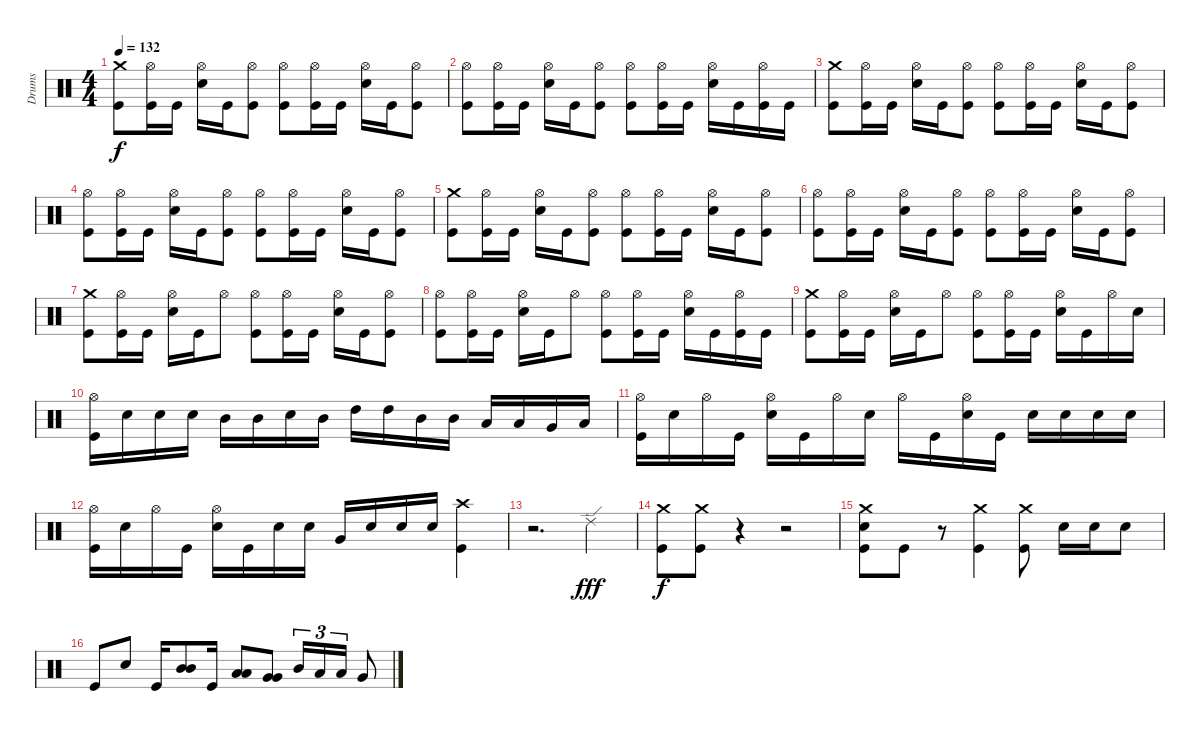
\track ("Drums" "Drums") {instrument percussion}
\staff {score}
\articulation defaults
\ts (4 4)
\tempo 132
\clef neutral
\ks c
("Crash medium (hit)" "Kick (hit)").8{dy f} ("Hi-Hat (open)" "Kick (hit)").16 "Kick (hit)".16 ("Hi-Hat (open)" "Snare (hit) 2").16 "Kick (hit)".16 ("Hi-Hat (open)" "Kick (hit)").8 ("Hi-Hat (open)" "Kick (hit)").8 ("Hi-Hat (open)" "Kick (hit)").16 "Kick (hit)".16 ("Hi-Hat (open)" "Snare (hit) 2").16 "Kick (hit)".16 ("Hi-Hat (open)" "Kick (hit)").8 |
("Hi-Hat (open)" "Kick (hit)").8 ("Hi-Hat (open)" "Kick (hit)").16 "Kick (hit)".16 ("Hi-Hat (open)" "Snare (hit) 2").16 "Kick (hit)".16 ("Hi-Hat (open)" "Kick (hit)").8 ("Hi-Hat (open)" "Kick (hit)").8 ("Hi-Hat (open)" "Kick (hit)").16 "Kick (hit)".16 ("Hi-Hat (open)" "Snare (hit) 2").16 "Kick (hit)".16 ("Hi-Hat (open)" "Kick (hit)").16 "Kick (hit)".16 |
("Crash medium (hit)" "Kick (hit)").8 ("Hi-Hat (open)" "Kick (hit)").16 "Kick (hit)".16 ("Hi-Hat (open)" "Snare (hit) 2").16 "Kick (hit)".16 ("Hi-Hat (open)" "Kick (hit)").8 ("Hi-Hat (open)" "Kick (hit)").8 ("Hi-Hat (open)" "Kick (hit)").16 "Kick (hit)".16 ("Hi-Hat (open)" "Snare (hit) 2").16 "Kick (hit)".16 ("Hi-Hat (open)" "Kick (hit)").8 |
("Hi-Hat (open)" "Kick (hit)").8 ("Hi-Hat (open)" "Kick (hit)").16 "Kick (hit)".16 ("Hi-Hat (open)" "Snare (hit) 2").16 "Kick (hit)".16 ("Hi-Hat (open)" "Kick (hit)").8 ("Hi-Hat (open)" "Kick (hit)").8 ("Hi-Hat (open)" "Kick (hit)").16 "Kick (hit)".16 ("Hi-Hat (open)" "Snare (hit) 2").16 "Kick (hit)".16 ("Hi-Hat (open)" "Kick (hit)").8 |
("Crash medium (hit)" "Kick (hit)").8 ("Hi-Hat (open)" "Kick (hit)").16 "Kick (hit)".16 ("Hi-Hat (open)" "Snare (hit) 2").16 "Kick (hit)".16 ("Hi-Hat (open)" "Kick (hit)").8 ("Hi-Hat (open)" "Kick (hit)").8 ("Hi-Hat (open)" "Kick (hit)").16 "Kick (hit)".16 ("Hi-Hat (open)" "Snare (hit) 2").16 "Kick (hit)".16 ("Hi-Hat (open)" "Kick (hit)").8 |
("Hi-Hat (open)" "Kick (hit)").8 ("Hi-Hat (open)" "Kick (hit)").16 "Kick (hit)".16 ("Hi-Hat (open)" "Snare (hit) 2").16 "Kick (hit)".16 ("Hi-Hat (open)" "Kick (hit)").8 ("Hi-Hat (open)" "Kick (hit)").8 ("Hi-Hat (open)" "Kick (hit)").16 "Kick (hit)".16 ("Hi-Hat (open)" "Snare (hit) 2").16 "Kick (hit)".16 ("Hi-Hat (open)" "Kick (hit)").8 |
("Crash medium (hit)" "Kick (hit)").8 ("Hi-Hat (open)" "Kick (hit)").16 "Kick (hit)".16 ("Hi-Hat (open)" "Snare (hit) 2").16 "Kick (hit)".16 "Hi-Hat (open)".8 ("Hi-Hat (open)" "Kick (hit)").8 ("Hi-Hat (open)" "Kick (hit)").16 "Kick (hit)".16 ("Hi-Hat (open)" "Snare (hit) 2").16 "Kick (hit)".16 ("Hi-Hat (open)" "Kick (hit)").8 |
("Hi-Hat (open)" "Kick (hit)").8 ("Hi-Hat (open)" "Kick (hit)").16 "Kick (hit)".16 ("Hi-Hat (open)" "Snare (hit) 2").16 "Kick (hit)".16 "Hi-Hat (open)".8 ("Hi-Hat (open)" "Kick (hit)").8 ("Hi-Hat (open)" "Kick (hit)").16 "Kick (hit)".16 ("Hi-Hat (open)" "Snare (hit) 2").16 "Kick (hit)".16 ("Hi-Hat (open)" "Kick (hit)").16 "Kick (hit)".16 |
("Crash medium (hit)" "Kick (hit)").8 ("Hi-Hat (open)" "Kick (hit)").16 "Kick (hit)".16 ("Hi-Hat (open)" "Snare (hit) 2").16 "Kick (hit)".16 "Hi-Hat (open)".8 ("Hi-Hat (open)" "Kick (hit)").8 ("Hi-Hat (open)" "Kick (hit)").16 "Kick (hit)".16 ("Hi-Hat (open)" "Snare (hit) 2").16 "Kick (hit)".16 "Hi-Hat (open)".16 "Snare (hit) 2".16 |
("Hi-Hat (open)" "Kick (hit)").16 "Snare (hit) 2".16 "Snare (hit) 2".16 "Snare (hit) 2".16 "Mid Tom (hit)".16 "Mid Tom (hit)".16 "Snare (hit) 2".16 "Mid Tom (hit)".16 "High Tom (hit)".16 "High Tom (hit)".16 "Mid Tom (hit)".16 "Mid Tom (hit)".16 "Low Tom (hit)".16 "Low Tom (hit)".16 "Very Low Tom (hit)".16 "Low Floor Tom (hit)".16 |
("Hi-Hat (open)" "Kick (hit)").16 "Snare (hit) 2".16 "Hi-Hat (open)".16 "Kick (hit)".16 ("Hi-Hat (open)" "Snare (hit) 2").16 "Kick (hit)".16 "Hi-Hat (open)".16 "Snare (hit) 2".16 "Hi-Hat (open)".16 "Kick (hit)".16 ("Hi-Hat (open)" "Snare (hit) 2").16 "Kick (hit)".16 "Snare (hit) 2".16 "Snare (hit) 2".16 "Snare (hit) 2".16 "Snare (hit) 2".16 |
("Hi-Hat (open)" "Kick (hit)").16 "Snare (hit) 2".16 "Hi-Hat (open)".16 "Kick (hit)".16 ("Hi-Hat (open)" "Snare (hit) 2").16 "Kick (hit)".16 "Snare (hit) 2".16 "Snare (hit) 2".16 "Very Low Tom (hit)".16 "Snare (hit) 2".16 "Snare (hit) 2".16 "Snare (hit) 2".16 ("Crash high (hit)" "Kick (hit)").4 |
r.2{d} "Ride (edge) 2".4{dy fff} |
("Crash medium (hit)" "Kick (hit)").8{dy f} ("Crash medium (hit)" "Kick (hit)").8 r.4 r.2 |
("Crash medium (hit)" "Snare (hit) 2" "Kick (hit)").8 "Kick (hit)".8 r.8 ("Crash medium (hit)" "Kick (hit)").4 ("Crash medium (hit)" "Kick (hit)").8 "Snare (hit) 2".16 "Snare (hit) 2".16 "Snare (hit) 2".8 |
"Kick (hit)".8 "Snare (hit) 2".8 "Kick (hit)".16 ("Mid Tom (hit)" "Mid Tom (hit)").8 "Kick (hit)".16 ("Low Tom (hit)" "Low Tom (hit)").8 ("Very Low Tom (hit)" "Very Low Tom (hit)").8 "Mid Tom (hit)".16{tu (3 2)} "Low Tom (hit)".16{tu (3 2)} "Low Tom (hit)".16{tu (3 2)} "Very Low Tom (hit)".8
